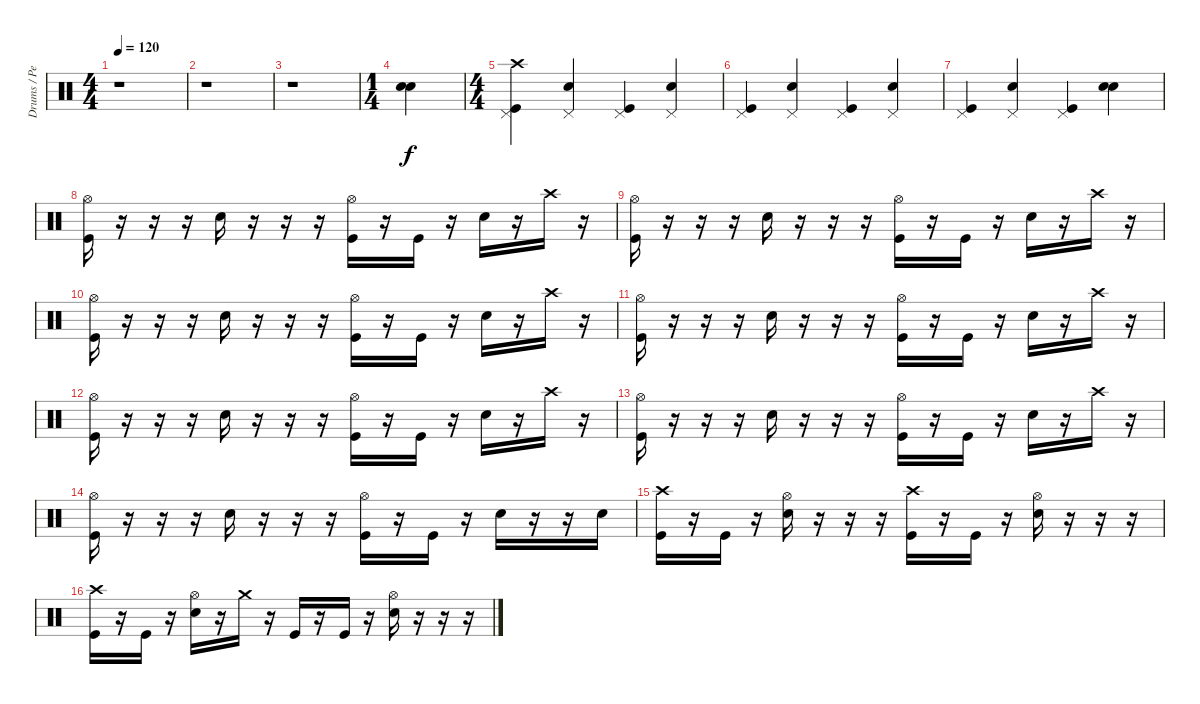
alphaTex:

\track ("Drums / Percussion" "Drums / Pe") {instrument percussion}
\staff {score}
\articulation defaults
\ts (4 4)
\tempo 120
\clef neutral
\ks c
r.1{dy f} |
r.1 |
r.1 |
\ts (1 4)
("Snare (hit) 2" "Snare (hit) 2").4 |
\ts (4 4)
("Crash high (hit)" "Pedal Hi-Hat (hit)" "Kick (hit)").4 ("Pedal Hi-Hat (hit)" "Snare (hit) 2").4 ("Pedal Hi-Hat (hit)" "Kick (hit)").4 ("Pedal Hi-Hat (hit)" "Snare (hit) 2").4 |
("Pedal Hi-Hat (hit)" "Kick (hit)").4 ("Pedal Hi-Hat (hit)" "Snare (hit) 2").4 ("Pedal Hi-Hat (hit)" "Kick (hit)").4 ("Pedal Hi-Hat (hit)" "Snare (hit) 2").4 |
("Pedal Hi-Hat (hit)" "Kick (hit)").4 ("Pedal Hi-Hat (hit)" "Snare (hit) 2").4 ("Pedal Hi-Hat (hit)" "Kick (hit)").4 ("Snare (hit) 2" "Snare (hit) 2").4 |
("Hi-Hat (open)" "Kick (hit)").16 r.16 r.16 r.16 "Snare (hit) 2".16 r.16 r.16 r.16 ("Hi-Hat (open)" "Kick (hit)").16 r.16 "Kick (hit)".16 r.16 "Snare (hit) 2".16 r.16 "Crash high (hit)".16 r.16 |
("Hi-Hat (open)" "Kick (hit)").16 r.16 r.16 r.16 "Snare (hit) 2".16 r.16 r.16 r.16 ("Hi-Hat (open)" "Kick (hit)").16 r.16 "Kick (hit)".16 r.16 "Snare (hit) 2".16 r.16 "Crash high (hit)".16 r.16 |
("Hi-Hat (open)" "Kick (hit)").16 r.16 r.16 r.16 "Snare (hit) 2".16 r.16 r.16 r.16 ("Hi-Hat (open)" "Kick (hit)").16 r.16 "Kick (hit)".16 r.16 "Snare (hit) 2".16 r.16 "Crash high (hit)".16 r.16 |
("Hi-Hat (open)" "Kick (hit)").16 r.16 r.16 r.16 "Snare (hit) 2".16 r.16 r.16 r.16 ("Hi-Hat (open)" "Kick (hit)").16 r.16 "Kick (hit)".16 r.16 "Snare (hit) 2".16 r.16 "Crash high (hit)".16 r.16 |
("Hi-Hat (open)" "Kick (hit)").16 r.16 r.16 r.16 "Snare (hit) 2".16 r.16 r.16 r.16 ("Hi-Hat (open)" "Kick (hit)").16 r.16 "Kick (hit)".16 r.16 "Snare (hit) 2".16 r.16 "Crash high (hit)".16 r.16 |
("Hi-Hat (open)" "Kick (hit)").16 r.16 r.16 r.16 "Snare (hit) 2".16 r.16 r.16 r.16 ("Hi-Hat (open)" "Kick (hit)").16 r.16 "Kick (hit)".16 r.16 "Snare (hit) 2".16 r.16 "Crash high (hit)".16 r.16 |
("Hi-Hat (open)" "Kick (hit)").16 r.16 r.16 r.16 "Snare (hit) 2".16 r.16 r.16 r.16 ("Hi-Hat (open)" "Kick (hit)").16 r.16 "Kick (hit)".16 r.16 "Snare (hit) 2".16 r.16 r.16 "Snare (hit) 2".16 |
("Crash high (hit)" "Kick (hit)").16 r.16 "Kick (hit)".16 r.16 ("Hi-Hat (open)" "Snare (hit) 2").16 r.16 r.16 r.16 ("Crash high (hit)" "Kick (hit)").16 r.16 "Kick (hit)".16 r.16 ("Hi-Hat (open)" "Snare (hit) 2").16 r.16 r.16 r.16 |
("Crash high (hit)" "Kick (hit)").16 r.16 "Kick (hit)".16 r.16 ("Hi-Hat (open)" "Snare (hit) 2").16 r.16 "Crash medium (hit)".16 r.16 "Kick (hit)".16 r.16 "Kick (hit)".16 r.16 ("Hi-Hat (open)" "Snare (hit) 2").16 r.16 r.16 r.16
